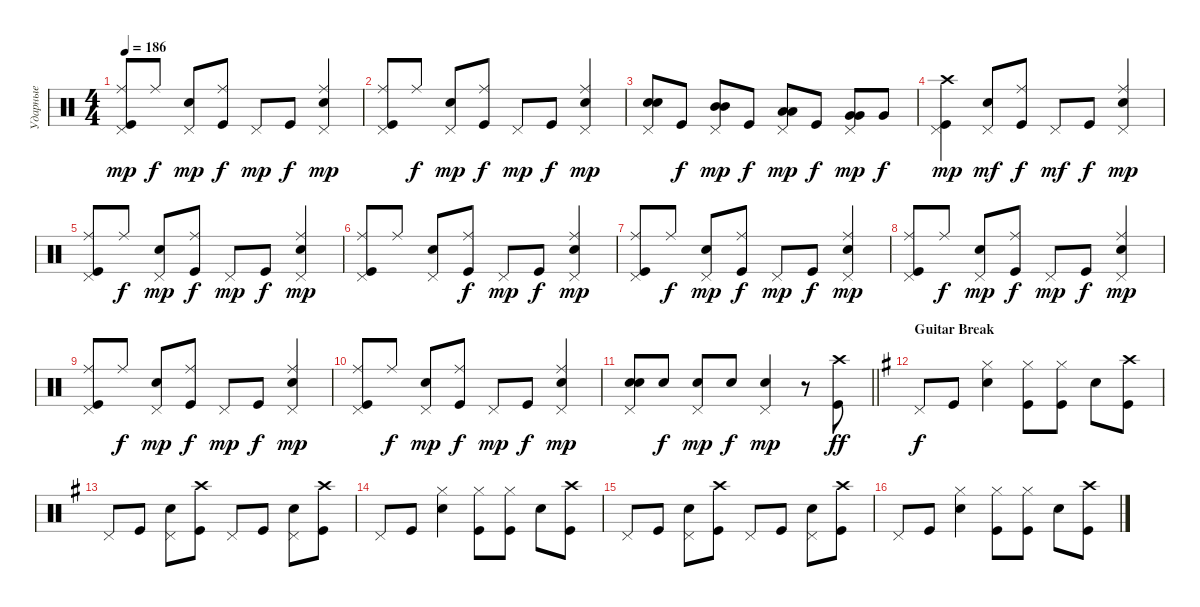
\track ("Ударные" "Ударные") {instrument percussion}
\staff {score}
\articulation defaults
\ts (4 4)
\tempo 186
\clef neutral
\ks aminor
("Pedal Hi-Hat (hit)" "Ride (middle)" "Kick (hit)").8{dy mp} "Ride (middle)".8{dy f} ("Snare (hit) 2" "Pedal Hi-Hat (hit)").8{dy mp} ("Kick (hit)" "Ride (middle)").8{dy f} "Pedal Hi-Hat (hit)".8{dy mp} "Kick (hit)".8{dy f} ("Snare (hit) 2" "Ride (middle)" "Pedal Hi-Hat (hit)").4{dy mp} |
("Pedal Hi-Hat (hit)" "Ride (middle)" "Kick (hit)").8 "Ride (middle)".8{dy f} ("Snare (hit) 2" "Pedal Hi-Hat (hit)").8{dy mp} ("Kick (hit)" "Ride (middle)").8{dy f} "Pedal Hi-Hat (hit)".8{dy mp} "Kick (hit)".8{dy f} ("Snare (hit) 2" "Ride (middle)" "Pedal Hi-Hat (hit)").4{dy mp} |
("Snare (hit) 2" "Snare (hit) 2" "Pedal Hi-Hat (hit)").8{bd 240} "Kick (hit)".8{dy f} ("Pedal Hi-Hat (hit)" "Mid Tom (hit)" "Mid Tom (hit)").8{bd 480 dy mp} "Kick (hit)".8{dy f} ("Low Tom (hit)" "Low Tom (hit)" "Pedal Hi-Hat (hit)").8{bd 480 dy mp} "Kick (hit)".8{dy f} ("Very Low Tom (hit)" "Pedal Hi-Hat (hit)" "Very Low Tom (hit)").8{dy mp} "Very Low Tom (hit)".8{dy f} |
("Kick (hit)" "Crash high (hit)" "Pedal Hi-Hat (hit)").4{dy mp} ("Snare (hit) 2" "Pedal Hi-Hat (hit)").8{dy mf} ("Kick (hit)" "Ride (middle)").8{dy f} "Pedal Hi-Hat (hit)".8{dy mf} "Kick (hit)".8{dy f} ("Snare (hit) 2" "Ride (middle)" "Pedal Hi-Hat (hit)").4{dy mp} |
("Pedal Hi-Hat (hit)" "Ride (middle)" "Kick (hit)").8 "Ride (middle)".8{dy f} ("Snare (hit) 2" "Pedal Hi-Hat (hit)").8{dy mp} ("Kick (hit)" "Ride (middle)").8{dy f} "Pedal Hi-Hat (hit)".8{dy mp} "Kick (hit)".8{dy f} ("Snare (hit) 2" "Ride (middle)" "Pedal Hi-Hat (hit)").4{dy mp} |
("Pedal Hi-Hat (hit)" "Ride (middle)" "Kick (hit)").8 "Ride (middle)".8 ("Snare (hit) 2" "Pedal Hi-Hat (hit)").8 ("Kick (hit)" "Ride (middle)").8{dy f} "Pedal Hi-Hat (hit)".8{dy mp} "Kick (hit)".8{dy f} ("Snare (hit) 2" "Ride (middle)" "Pedal Hi-Hat (hit)").4{dy mp} |
("Pedal Hi-Hat (hit)" "Ride (middle)" "Kick (hit)").8 "Ride (middle)".8{dy f} ("Snare (hit) 2" "Pedal Hi-Hat (hit)").8{dy mp} ("Kick (hit)" "Ride (middle)").8{dy f} "Pedal Hi-Hat (hit)".8{dy mp} "Kick (hit)".8{dy f} ("Snare (hit) 2" "Ride (middle)" "Pedal Hi-Hat (hit)").4{dy mp} |
("Pedal Hi-Hat (hit)" "Ride (middle)" "Kick (hit)").8 "Ride (middle)".8{dy f} ("Snare (hit) 2" "Pedal Hi-Hat (hit)").8{dy mp} ("Kick (hit)" "Ride (middle)").8{dy f} "Pedal Hi-Hat (hit)".8{dy mp} "Kick (hit)".8{dy f} ("Snare (hit) 2" "Ride (middle)" "Pedal Hi-Hat (hit)").4{dy mp} |
("Pedal Hi-Hat (hit)" "Ride (middle)" "Kick (hit)").8 "Ride (middle)".8{dy f} ("Snare (hit) 2" "Pedal Hi-Hat (hit)").8{dy mp} ("Kick (hit)" "Ride (middle)").8{dy f} "Pedal Hi-Hat (hit)".8{dy mp} "Kick (hit)".8{dy f} ("Snare (hit) 2" "Ride (middle)" "Pedal Hi-Hat (hit)").4{dy mp} |
("Pedal Hi-Hat (hit)" "Ride (middle)" "Kick (hit)").8 "Ride (middle)".8{dy f} ("Snare (hit) 2" "Pedal Hi-Hat (hit)").8{dy mp} ("Kick (hit)" "Ride (middle)").8{dy f} "Pedal Hi-Hat (hit)".8{dy mp} "Kick (hit)".8{dy f} ("Snare (hit) 2" "Ride (middle)" "Pedal Hi-Hat (hit)").4{dy mp} |
\barLineRight lightlight
("Snare (hit) 2" "Snare (hit) 2" "Pedal Hi-Hat (hit)").8{bd 240} "Snare (hit) 2".8{dy f} ("Snare (hit) 2" "Pedal Hi-Hat (hit)").8{dy mp} "Snare (hit) 2".8{dy f} ("Snare (hit) 2" "Pedal Hi-Hat (hit)").4{dy mp} r.8 ("Kick (hit)" "Crash high (hit)").8{dy ff} |
\section ("" "Guitar Break")
\ks eminor "Pedal Hi-Hat (hit)".8{dy f} "Kick (hit)".8
("Snare (hit) 2" "Hi-Hat (closed)").4 ("Kick (hit)" "Hi-Hat (closed)").8 ("Kick (hit)" "Hi-Hat (closed)").8 "Snare (hit) 2".8 ("Kick (hit)" "Crash high (hit)").8 |
"Pedal Hi-Hat (hit)".8 "Kick (hit)".8 ("Snare (hit) 2" "Pedal Hi-Hat (hit)").8 ("Kick (hit)" "Crash high (hit)").8 "Pedal Hi-Hat (hit)".8 "Kick (hit)".8 ("Snare (hit) 2" "Pedal Hi-Hat (hit)").8 ("Kick (hit)" "Crash high (hit)").8 |
"Pedal Hi-Hat (hit)".8 "Kick (hit)".8 ("Snare (hit) 2" "Hi-Hat (closed)").4 ("Kick (hit)" "Hi-Hat (closed)").8 ("Kick (hit)" "Hi-Hat (closed)").8 "Snare (hit) 2".8 ("Kick (hit)" "Crash high (hit)").8 |
"Pedal Hi-Hat (hit)".8 "Kick (hit)".8 ("Snare (hit) 2" "Pedal Hi-Hat (hit)").8 ("Kick (hit)" "Crash high (hit)").8 "Pedal Hi-Hat (hit)".8 "Kick (hit)".8 ("Snare (hit) 2" "Pedal Hi-Hat (hit)").8 ("Kick (hit)" "Crash high (hit)").8 |
"Pedal Hi-Hat (hit)".8 "Kick (hit)".8 ("Snare (hit) 2" "Hi-Hat (closed)").4 ("Kick (hit)" "Hi-Hat (closed)").8 ("Kick (hit)" "Hi-Hat (closed)").8 "Snare (hit) 2".8 ("Kick (hit)" "Crash high (hit)").8
